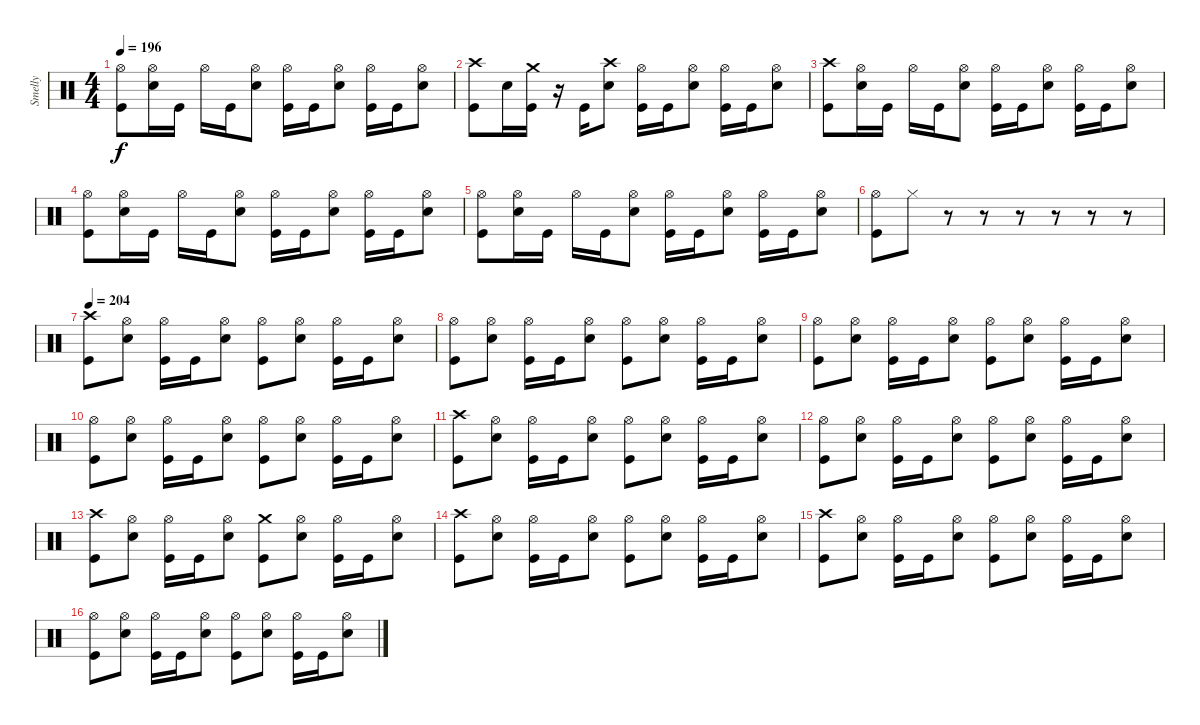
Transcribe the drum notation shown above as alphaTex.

\track ("Smelly" "Smelly") {instrument percussion}
\staff {score}
\articulation defaults
\ts (4 4)
\tempo 196
\clef neutral
\ks c
("Hi-Hat (open)" "Kick (hit)").8{dy f} ("Hi-Hat (open)" "Snare (hit) 2").16 "Kick (hit)".16 "Hi-Hat (open)".16 "Kick (hit)".16 ("Hi-Hat (open)" "Snare (hit) 2").8 ("Hi-Hat (open)" "Kick (hit)").16 "Kick (hit)".16 ("Hi-Hat (open)" "Snare (hit) 2").8 ("Hi-Hat (open)" "Kick (hit)").16 "Kick (hit)".16 ("Hi-Hat (open)" "Snare (hit) 2").8 |
("Crash high (hit)" "Kick (hit)").8 "Snare (hit) 2".16 ("Crash medium (hit)" "Kick (hit)").16 r.16 "Kick (hit)".16 ("Crash high (hit)" "Snare (hit) 2").8 ("Hi-Hat (open)" "Kick (hit)").16 "Kick (hit)".16 ("Hi-Hat (open)" "Snare (hit) 2").8 ("Hi-Hat (open)" "Kick (hit)").16 "Kick (hit)".16 ("Hi-Hat (open)" "Snare (hit) 2").8 |
("Crash high (hit)" "Kick (hit)").8 ("Hi-Hat (open)" "Snare (hit) 2").16 "Kick (hit)".16 "Hi-Hat (open)".16 "Kick (hit)".16 ("Hi-Hat (open)" "Snare (hit) 2").8 ("Hi-Hat (open)" "Kick (hit)").16 "Kick (hit)".16 ("Hi-Hat (open)" "Snare (hit) 2").8 ("Hi-Hat (open)" "Kick (hit)").16 "Kick (hit)".16 ("Hi-Hat (open)" "Snare (hit) 2").8 |
("Hi-Hat (open)" "Kick (hit)").8 ("Hi-Hat (open)" "Snare (hit) 2").16 "Kick (hit)".16 "Hi-Hat (open)".16 "Kick (hit)".16 ("Hi-Hat (open)" "Snare (hit) 2").8 ("Hi-Hat (open)" "Kick (hit)").16 "Kick (hit)".16 ("Hi-Hat (open)" "Snare (hit) 2").8 ("Hi-Hat (open)" "Kick (hit)").16 "Kick (hit)".16 ("Hi-Hat (open)" "Snare (hit) 2").8 |
("Hi-Hat (open)" "Kick (hit)").8 ("Hi-Hat (open)" "Snare (hit) 2").16 "Kick (hit)".16 "Hi-Hat (open)".16 "Kick (hit)".16 ("Hi-Hat (open)" "Snare (hit) 2").8 ("Hi-Hat (open)" "Kick (hit)").16 "Kick (hit)".16 ("Hi-Hat (open)" "Snare (hit) 2").8 ("Hi-Hat (open)" "Kick (hit)").16 "Kick (hit)".16 ("Hi-Hat (open)" "Snare (hit) 2").8 |
("Hi-Hat (open)" "Kick (hit)").8 "Hi-Hat (closed)".8 r.8 r.8 r.8 r.8 r.8 r.8 |
\tempo 201
\tempo 204
("Crash high (hit)" "Kick (hit)").8 ("Hi-Hat (open)" "Snare (hit) 2").8 ("Hi-Hat (open)" "Kick (hit)").16 "Kick (hit)".16 ("Hi-Hat (open)" "Snare (hit) 2").8 ("Hi-Hat (open)" "Kick (hit)").8 ("Hi-Hat (open)" "Snare (hit) 2").8 ("Hi-Hat (open)" "Kick (hit)").16 "Kick (hit)".16 ("Hi-Hat (open)" "Snare (hit) 2").8 |
("Hi-Hat (open)" "Kick (hit)").8 ("Hi-Hat (open)" "Snare (hit) 2").8 ("Hi-Hat (open)" "Kick (hit)").16 "Kick (hit)".16 ("Hi-Hat (open)" "Snare (hit) 2").8 ("Hi-Hat (open)" "Kick (hit)").8 ("Hi-Hat (open)" "Snare (hit) 2").8 ("Hi-Hat (open)" "Kick (hit)").16 "Kick (hit)".16 ("Hi-Hat (open)" "Snare (hit) 2").8 |
("Hi-Hat (open)" "Kick (hit)").8 ("Hi-Hat (open)" "Snare (hit) 2").8 ("Hi-Hat (open)" "Kick (hit)").16 "Kick (hit)".16 ("Hi-Hat (open)" "Snare (hit) 2").8 ("Hi-Hat (open)" "Kick (hit)").8 ("Hi-Hat (open)" "Snare (hit) 2").8 ("Hi-Hat (open)" "Kick (hit)").16 "Kick (hit)".16 ("Hi-Hat (open)" "Snare (hit) 2").8 |
("Hi-Hat (open)" "Kick (hit)").8 ("Hi-Hat (open)" "Snare (hit) 2").8 ("Hi-Hat (open)" "Kick (hit)").16 "Kick (hit)".16 ("Hi-Hat (open)" "Snare (hit) 2").8 ("Hi-Hat (open)" "Kick (hit)").8 ("Hi-Hat (open)" "Snare (hit) 2").8 ("Hi-Hat (open)" "Kick (hit)").16 "Kick (hit)".16 ("Hi-Hat (open)" "Snare (hit) 2").8 |
("Crash high (hit)" "Kick (hit)").8 ("Hi-Hat (open)" "Snare (hit) 2").8 ("Hi-Hat (open)" "Kick (hit)").16 "Kick (hit)".16 ("Hi-Hat (open)" "Snare (hit) 2").8 ("Hi-Hat (open)" "Kick (hit)").8 ("Hi-Hat (open)" "Snare (hit) 2").8 ("Hi-Hat (open)" "Kick (hit)").16 "Kick (hit)".16 ("Hi-Hat (open)" "Snare (hit) 2").8 |
("Hi-Hat (open)" "Kick (hit)").8 ("Hi-Hat (open)" "Snare (hit) 2").8 ("Hi-Hat (open)" "Kick (hit)").16 "Kick (hit)".16 ("Hi-Hat (open)" "Snare (hit) 2").8 ("Hi-Hat (open)" "Kick (hit)").8 ("Hi-Hat (open)" "Snare (hit) 2").8 ("Hi-Hat (open)" "Kick (hit)").16 "Kick (hit)".16 ("Hi-Hat (open)" "Snare (hit) 2").8 |
("Crash high (hit)" "Kick (hit)").8 ("Hi-Hat (open)" "Snare (hit) 2").8 ("Hi-Hat (open)" "Kick (hit)").16 "Kick (hit)".16 ("Hi-Hat (open)" "Snare (hit) 2").8 ("Crash medium (hit)" "Kick (hit)").8 ("Hi-Hat (open)" "Snare (hit) 2").8 ("Hi-Hat (open)" "Kick (hit)").16 "Kick (hit)".16 ("Hi-Hat (open)" "Snare (hit) 2").8 |
("Crash high (hit)" "Kick (hit)").8 ("Hi-Hat (open)" "Snare (hit) 2").8 ("Hi-Hat (open)" "Kick (hit)").16 "Kick (hit)".16 ("Hi-Hat (open)" "Snare (hit) 2").8 ("Hi-Hat (open)" "Kick (hit)").8 ("Hi-Hat (open)" "Snare (hit) 2").8 ("Hi-Hat (open)" "Kick (hit)").16 "Kick (hit)".16 ("Hi-Hat (open)" "Snare (hit) 2").8 |
("Crash high (hit)" "Kick (hit)").8 ("Hi-Hat (open)" "Snare (hit) 2").8 ("Hi-Hat (open)" "Kick (hit)").16 "Kick (hit)".16 ("Hi-Hat (open)" "Snare (hit) 2").8 ("Hi-Hat (open)" "Kick (hit)").8 ("Hi-Hat (open)" "Snare (hit) 2").8 ("Hi-Hat (open)" "Kick (hit)").16 "Kick (hit)".16 ("Hi-Hat (open)" "Snare (hit) 2").8 |
("Hi-Hat (open)" "Kick (hit)").8 ("Hi-Hat (open)" "Snare (hit) 2").8 ("Hi-Hat (open)" "Kick (hit)").16 "Kick (hit)".16 ("Hi-Hat (open)" "Snare (hit) 2").8 ("Hi-Hat (open)" "Kick (hit)").8 ("Hi-Hat (open)" "Snare (hit) 2").8 ("Hi-Hat (open)" "Kick (hit)").16 "Kick (hit)".16 ("Hi-Hat (open)" "Snare (hit) 2").8
